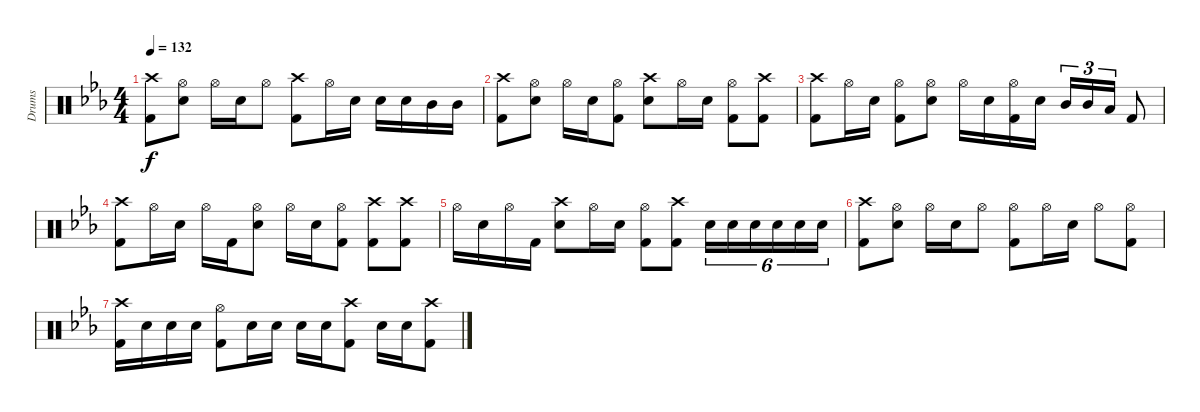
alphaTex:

\track ("Drums" "Drums") {instrument percussion}
\staff {score}
\articulation defaults
\ts (4 4)
\tempo 132
\clef neutral
\ks eb
("Crash high (hit)" "Kick (hit) 2").8{dy f} ("Hi-Hat (open)" "Snare (hit) 2").8 "Hi-Hat (open)".16 "Snare (hit) 2".16 "Hi-Hat (open)".8 ("Crash high (hit)" "Kick (hit) 2").8 "Hi-Hat (open)".16 "Snare (hit) 2".16 "Snare (hit) 2".16 "Snare (hit) 2".16 "Mid Tom (hit)".16 "Mid Tom (hit)".16 |
("Crash high (hit)" "Kick (hit) 2").8 ("Hi-Hat (open)" "Snare (hit) 2").8 "Hi-Hat (open)".16 "Snare (hit) 2".16 ("Hi-Hat (open)" "Kick (hit) 2").8 ("Crash high (hit)" "Snare (hit) 2").8 "Hi-Hat (open)".16 "Snare (hit) 2".16 ("Hi-Hat (open)" "Kick (hit) 2").8 ("Crash high (hit)" "Kick (hit) 2").8 |
("Crash high (hit)" "Kick (hit) 2").8 "Hi-Hat (open)".16 "Snare (hit) 2".16 ("Hi-Hat (open)" "Kick (hit) 2").8 ("Hi-Hat (open)" "Snare (hit) 2").8 "Hi-Hat (open)".16 "Snare (hit) 2".16 ("Hi-Hat (open)" "Kick (hit) 2").16 "Snare (hit) 2".16 "Mid Tom (hit)".16{tu (3 2)} "Mid Tom (hit)".16{tu (3 2)} "Low Tom (hit)".16{tu (3 2)} "Kick (hit) 2".8 |
("Crash high (hit)" "Kick (hit) 2").8 "Hi-Hat (open)".16 "Snare (hit) 2".16 "Hi-Hat (open)".16 "Kick (hit) 2".16 ("Hi-Hat (open)" "Snare (hit) 2").8 "Hi-Hat (open)".16 "Snare (hit) 2".16 ("Hi-Hat (open)" "Kick (hit) 2").8 ("Crash high (hit)" "Kick (hit) 2").8 ("Crash high (hit)" "Kick (hit) 2").8 |
"Hi-Hat (open)".16 "Snare (hit) 2".16 "Hi-Hat (open)".16 "Kick (hit) 2".16 ("Crash high (hit)" "Snare (hit) 2").8 "Hi-Hat (open)".16 "Snare (hit) 2".16 ("Hi-Hat (open)" "Kick (hit) 2").8 ("Crash high (hit)" "Kick (hit) 2").8 "Snare (hit) 2".16{tu (6 4)} "Snare (hit) 2".16{tu (6 4)} "Snare (hit) 2".16{tu (6 4)} "Snare (hit) 2".16{tu (6 4)} "Snare (hit) 2".16{tu (6 4)} "Snare (hit) 2".16{tu (6 4)} |
("Crash high (hit)" "Kick (hit) 2").8 ("Hi-Hat (open)" "Snare (hit) 2").8 "Hi-Hat (open)".16 "Snare (hit) 2".16 "Hi-Hat (open)".8 ("Hi-Hat (open)" "Kick (hit) 2").8 "Hi-Hat (open)".16 "Snare (hit) 2".16 "Hi-Hat (open)".8 ("Hi-Hat (open)" "Kick (hit) 2").8 |
("Crash high (hit)" "Kick (hit) 2").16 "Snare (hit) 2".16 "Snare (hit) 2".16 "Snare (hit) 2".16 ("Hi-Hat (open)" "Kick (hit) 2").8 "Snare (hit) 2".16 "Snare (hit) 2".16 "Snare (hit) 2".16 "Snare (hit) 2".16 ("Crash high (hit)" "Kick (hit) 2").8 "Snare (hit) 2".16 "Snare (hit) 2".16 ("Crash high (hit)" "Kick (hit) 2").8
